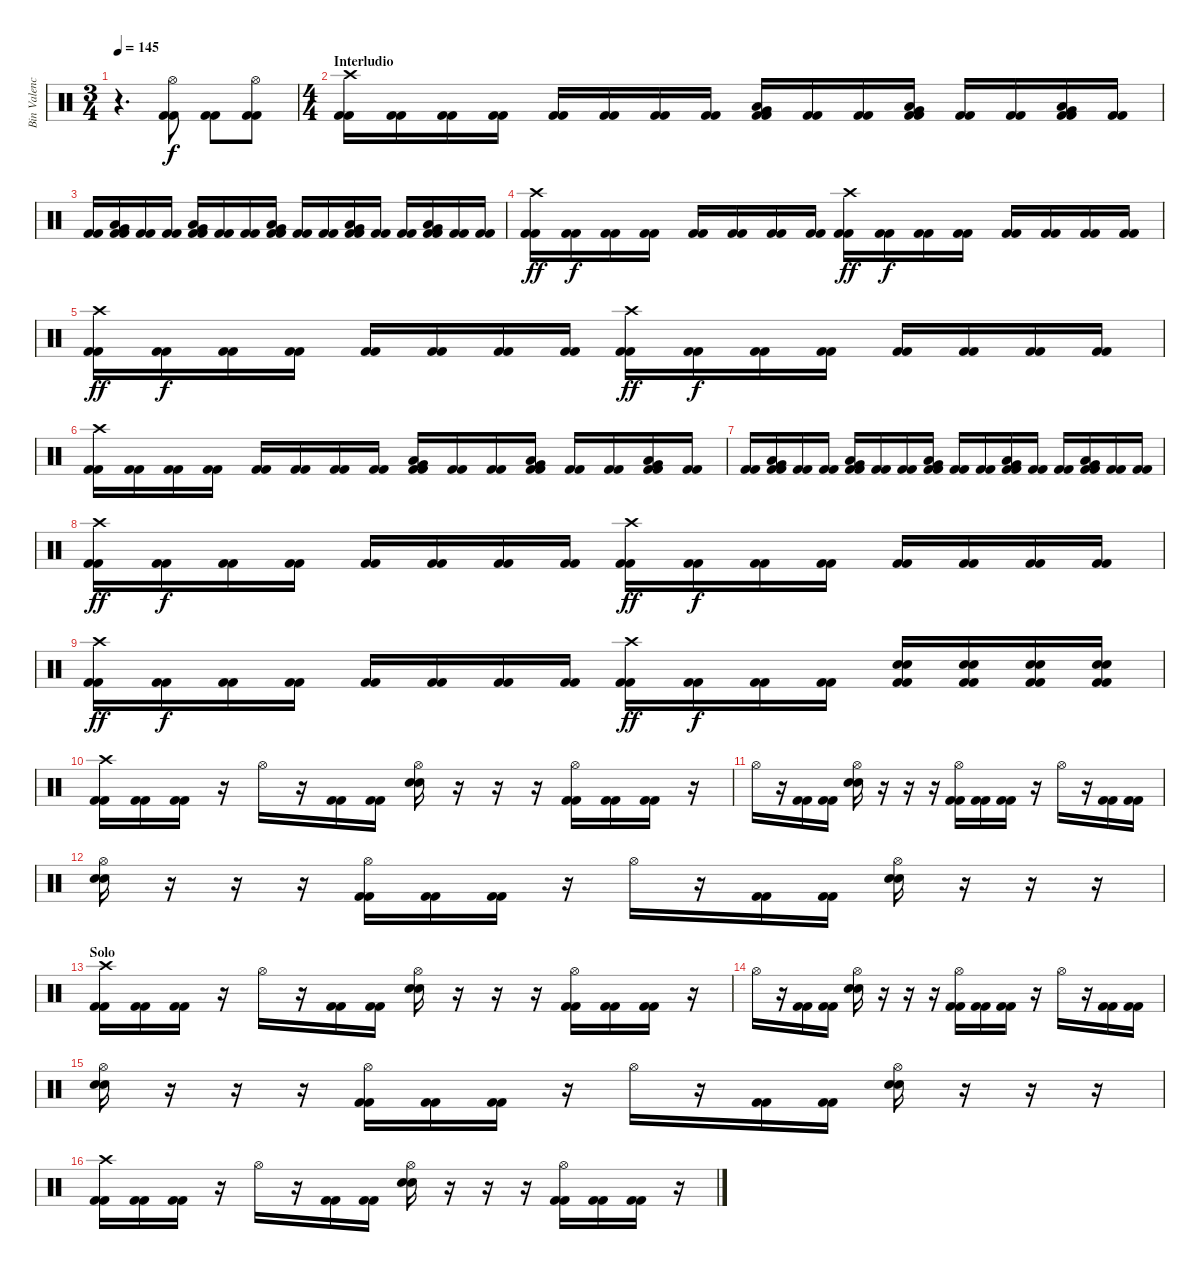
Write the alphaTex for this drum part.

\track ("Bin Valencia (Bateria)" "Bin Valenc") {instrument percussion}
\staff {score}
\articulation defaults
\ts (3 4)
\tempo 145
\clef neutral
\ks c
r.4{d dy f} ("Hi-Hat (open)" "Kick (hit) 2" "Kick (hit) 2").8 ("Kick (hit) 2" "Kick (hit) 2").8 ("Hi-Hat (open)" "Kick (hit) 2" "Kick (hit) 2").8 |
\ts (4 4)
\section ("" "Interludio")
("Crash high (hit)" "Kick (hit) 2" "Kick (hit) 2").16 ("Kick (hit) 2" "Kick (hit) 2").16 ("Kick (hit) 2" "Kick (hit) 2").16 ("Kick (hit) 2" "Kick (hit) 2").16 ("Kick (hit) 2" "Kick (hit) 2").16 ("Kick (hit) 2" "Kick (hit) 2").16 ("Kick (hit) 2" "Kick (hit) 2").16 ("Kick (hit) 2" "Kick (hit) 2").16 ("Low Tom (hit)" "Very Low Tom (hit)" "Kick (hit) 2" "Kick (hit) 2").16 ("Kick (hit) 2" "Kick (hit) 2").16 ("Kick (hit) 2" "Kick (hit) 2").16 ("Low Tom (hit)" "Very Low Tom (hit)" "Kick (hit) 2" "Kick (hit) 2").16 ("Kick (hit) 2" "Kick (hit) 2").16 ("Kick (hit) 2" "Kick (hit) 2").16 ("Low Tom (hit)" "Very Low Tom (hit)" "Kick (hit) 2" "Kick (hit) 2").16 ("Kick (hit) 2" "Kick (hit) 2").16 |
("Kick (hit) 2" "Kick (hit) 2").16 ("Low Tom (hit)" "Very Low Tom (hit)" "Kick (hit) 2" "Kick (hit) 2").16 ("Kick (hit) 2" "Kick (hit) 2").16 ("Kick (hit) 2" "Kick (hit) 2").16 ("Low Tom (hit)" "Very Low Tom (hit)" "Kick (hit) 2" "Kick (hit) 2").16 ("Kick (hit) 2" "Kick (hit) 2").16 ("Kick (hit) 2" "Kick (hit) 2").16 ("Low Tom (hit)" "Very Low Tom (hit)" "Kick (hit) 2" "Kick (hit) 2").16 ("Kick (hit) 2" "Kick (hit) 2").16 ("Kick (hit) 2" "Kick (hit) 2").16 ("Low Tom (hit)" "Very Low Tom (hit)" "Kick (hit) 2" "Kick (hit) 2").16 ("Kick (hit) 2" "Kick (hit) 2").16 ("Kick (hit) 2" "Kick (hit) 2").16 ("Low Tom (hit)" "Very Low Tom (hit)" "Kick (hit) 2" "Kick (hit) 2").16 ("Kick (hit) 2" "Kick (hit) 2").16 ("Kick (hit) 2" "Kick (hit) 2").16 |
("Crash high (hit)" "Kick (hit) 2" "Kick (hit) 2").16{dy ff} ("Kick (hit) 2" "Kick (hit) 2").16{dy f} ("Kick (hit) 2" "Kick (hit) 2").16 ("Kick (hit) 2" "Kick (hit) 2").16 ("Kick (hit) 2" "Kick (hit) 2").16 ("Kick (hit) 2" "Kick (hit) 2").16 ("Kick (hit) 2" "Kick (hit) 2").16 ("Kick (hit) 2" "Kick (hit) 2").16 ("Crash high (hit)" "Kick (hit) 2" "Kick (hit) 2").16{dy ff} ("Kick (hit) 2" "Kick (hit) 2").16{dy f} ("Kick (hit) 2" "Kick (hit) 2").16 ("Kick (hit) 2" "Kick (hit) 2").16 ("Kick (hit) 2" "Kick (hit) 2").16 ("Kick (hit) 2" "Kick (hit) 2").16 ("Kick (hit) 2" "Kick (hit) 2").16 ("Kick (hit) 2" "Kick (hit) 2").16 |
("Crash high (hit)" "Kick (hit) 2" "Kick (hit) 2").16{dy ff} ("Kick (hit) 2" "Kick (hit) 2").16{dy f} ("Kick (hit) 2" "Kick (hit) 2").16 ("Kick (hit) 2" "Kick (hit) 2").16 ("Kick (hit) 2" "Kick (hit) 2").16 ("Kick (hit) 2" "Kick (hit) 2").16 ("Kick (hit) 2" "Kick (hit) 2").16 ("Kick (hit) 2" "Kick (hit) 2").16 ("Crash high (hit)" "Kick (hit) 2" "Kick (hit) 2").16{dy ff} ("Kick (hit) 2" "Kick (hit) 2").16{dy f} ("Kick (hit) 2" "Kick (hit) 2").16 ("Kick (hit) 2" "Kick (hit) 2").16 ("Kick (hit) 2" "Kick (hit) 2").16 ("Kick (hit) 2" "Kick (hit) 2").16 ("Kick (hit) 2" "Kick (hit) 2").16 ("Kick (hit) 2" "Kick (hit) 2").16 |
("Crash high (hit)" "Kick (hit) 2" "Kick (hit) 2").16 ("Kick (hit) 2" "Kick (hit) 2").16 ("Kick (hit) 2" "Kick (hit) 2").16 ("Kick (hit) 2" "Kick (hit) 2").16 ("Kick (hit) 2" "Kick (hit) 2").16 ("Kick (hit) 2" "Kick (hit) 2").16 ("Kick (hit) 2" "Kick (hit) 2").16 ("Kick (hit) 2" "Kick (hit) 2").16 ("Low Tom (hit)" "Very Low Tom (hit)" "Kick (hit) 2" "Kick (hit) 2").16 ("Kick (hit) 2" "Kick (hit) 2").16 ("Kick (hit) 2" "Kick (hit) 2").16 ("Low Tom (hit)" "Very Low Tom (hit)" "Kick (hit) 2" "Kick (hit) 2").16 ("Kick (hit) 2" "Kick (hit) 2").16 ("Kick (hit) 2" "Kick (hit) 2").16 ("Low Tom (hit)" "Very Low Tom (hit)" "Kick (hit) 2" "Kick (hit) 2").16 ("Kick (hit) 2" "Kick (hit) 2").16 |
("Kick (hit) 2" "Kick (hit) 2").16 ("Low Tom (hit)" "Very Low Tom (hit)" "Kick (hit) 2" "Kick (hit) 2").16 ("Kick (hit) 2" "Kick (hit) 2").16 ("Kick (hit) 2" "Kick (hit) 2").16 ("Low Tom (hit)" "Very Low Tom (hit)" "Kick (hit) 2" "Kick (hit) 2").16 ("Kick (hit) 2" "Kick (hit) 2").16 ("Kick (hit) 2" "Kick (hit) 2").16 ("Low Tom (hit)" "Very Low Tom (hit)" "Kick (hit) 2" "Kick (hit) 2").16 ("Kick (hit) 2" "Kick (hit) 2").16 ("Kick (hit) 2" "Kick (hit) 2").16 ("Low Tom (hit)" "Very Low Tom (hit)" "Kick (hit) 2" "Kick (hit) 2").16 ("Kick (hit) 2" "Kick (hit) 2").16 ("Kick (hit) 2" "Kick (hit) 2").16 ("Low Tom (hit)" "Very Low Tom (hit)" "Kick (hit) 2" "Kick (hit) 2").16 ("Kick (hit) 2" "Kick (hit) 2").16 ("Kick (hit) 2" "Kick (hit) 2").16 |
("Crash high (hit)" "Kick (hit) 2" "Kick (hit) 2").16{dy ff} ("Kick (hit) 2" "Kick (hit) 2").16{dy f} ("Kick (hit) 2" "Kick (hit) 2").16 ("Kick (hit) 2" "Kick (hit) 2").16 ("Kick (hit) 2" "Kick (hit) 2").16 ("Kick (hit) 2" "Kick (hit) 2").16 ("Kick (hit) 2" "Kick (hit) 2").16 ("Kick (hit) 2" "Kick (hit) 2").16 ("Crash high (hit)" "Kick (hit) 2" "Kick (hit) 2").16{dy ff} ("Kick (hit) 2" "Kick (hit) 2").16{dy f} ("Kick (hit) 2" "Kick (hit) 2").16 ("Kick (hit) 2" "Kick (hit) 2").16 ("Kick (hit) 2" "Kick (hit) 2").16 ("Kick (hit) 2" "Kick (hit) 2").16 ("Kick (hit) 2" "Kick (hit) 2").16 ("Kick (hit) 2" "Kick (hit) 2").16 |
("Crash high (hit)" "Kick (hit) 2" "Kick (hit) 2").16{dy ff} ("Kick (hit) 2" "Kick (hit) 2").16{dy f} ("Kick (hit) 2" "Kick (hit) 2").16 ("Kick (hit) 2" "Kick (hit) 2").16 ("Kick (hit) 2" "Kick (hit) 2").16 ("Kick (hit) 2" "Kick (hit) 2").16 ("Kick (hit) 2" "Kick (hit) 2").16 ("Kick (hit) 2" "Kick (hit) 2").16 ("Crash high (hit)" "Kick (hit) 2" "Kick (hit) 2").16{dy ff} ("Kick (hit) 2" "Kick (hit) 2").16{dy f} ("Kick (hit) 2" "Kick (hit) 2").16 ("Kick (hit) 2" "Kick (hit) 2").16 ("Snare (hit) 2" "Snare (hit) 2" "Kick (hit) 2" "Kick (hit) 2").16 ("Snare (hit) 2" "Snare (hit) 2" "Kick (hit) 2" "Kick (hit) 2").16 ("Snare (hit) 2" "Snare (hit) 2" "Kick (hit) 2" "Kick (hit) 2").16 ("Snare (hit) 2" "Snare (hit) 2" "Kick (hit) 2" "Kick (hit) 2").16 |
("Kick (hit) 2" "Kick (hit) 2" "Crash high (hit)").16 ("Kick (hit) 2" "Kick (hit) 2").16 ("Kick (hit) 2" "Kick (hit) 2").16 r.16 "Hi-Hat (open)".16 r.16 ("Kick (hit) 2" "Kick (hit) 2").16 ("Kick (hit) 2" "Kick (hit) 2").16 ("Snare (hit) 2" "Snare (hit) 2" "Hi-Hat (open)").16 r.16 r.16 r.16 ("Kick (hit) 2" "Kick (hit) 2" "Hi-Hat (open)").16 ("Kick (hit) 2" "Kick (hit) 2").16 ("Kick (hit) 2" "Kick (hit) 2").16 r.16 |
"Hi-Hat (open)".16 r.16 ("Kick (hit) 2" "Kick (hit) 2").16 ("Kick (hit) 2" "Kick (hit) 2").16 ("Snare (hit) 2" "Snare (hit) 2" "Hi-Hat (open)").16 r.16 r.16 r.16 ("Kick (hit) 2" "Kick (hit) 2" "Hi-Hat (open)").16 ("Kick (hit) 2" "Kick (hit) 2").16 ("Kick (hit) 2" "Kick (hit) 2").16 r.16 "Hi-Hat (open)".16 r.16 ("Kick (hit) 2" "Kick (hit) 2").16 ("Kick (hit) 2" "Kick (hit) 2").16 |
("Snare (hit) 2" "Snare (hit) 2" "Hi-Hat (open)").16 r.16 r.16 r.16 ("Kick (hit) 2" "Kick (hit) 2" "Hi-Hat (open)").16 ("Kick (hit) 2" "Kick (hit) 2").16 ("Kick (hit) 2" "Kick (hit) 2").16 r.16 "Hi-Hat (open)".16 r.16 ("Kick (hit) 2" "Kick (hit) 2").16 ("Kick (hit) 2" "Kick (hit) 2").16 ("Snare (hit) 2" "Snare (hit) 2" "Hi-Hat (open)").16 r.16 r.16 r.16 |
\section ("" "Solo")
("Kick (hit) 2" "Kick (hit) 2" "Crash high (hit)").16 ("Kick (hit) 2" "Kick (hit) 2").16 ("Kick (hit) 2" "Kick (hit) 2").16 r.16 "Hi-Hat (open)".16 r.16 ("Kick (hit) 2" "Kick (hit) 2").16 ("Kick (hit) 2" "Kick (hit) 2").16 ("Snare (hit) 2" "Snare (hit) 2" "Hi-Hat (open)").16 r.16 r.16 r.16 ("Kick (hit) 2" "Kick (hit) 2" "Hi-Hat (open)").16 ("Kick (hit) 2" "Kick (hit) 2").16 ("Kick (hit) 2" "Kick (hit) 2").16 r.16 |
"Hi-Hat (open)".16 r.16 ("Kick (hit) 2" "Kick (hit) 2").16 ("Kick (hit) 2" "Kick (hit) 2").16 ("Snare (hit) 2" "Snare (hit) 2" "Hi-Hat (open)").16 r.16 r.16 r.16 ("Kick (hit) 2" "Kick (hit) 2" "Hi-Hat (open)").16 ("Kick (hit) 2" "Kick (hit) 2").16 ("Kick (hit) 2" "Kick (hit) 2").16 r.16 "Hi-Hat (open)".16 r.16 ("Kick (hit) 2" "Kick (hit) 2").16 ("Kick (hit) 2" "Kick (hit) 2").16 |
("Snare (hit) 2" "Snare (hit) 2" "Hi-Hat (open)").16 r.16 r.16 r.16 ("Kick (hit) 2" "Kick (hit) 2" "Hi-Hat (open)").16 ("Kick (hit) 2" "Kick (hit) 2").16 ("Kick (hit) 2" "Kick (hit) 2").16 r.16 "Hi-Hat (open)".16 r.16 ("Kick (hit) 2" "Kick (hit) 2").16 ("Kick (hit) 2" "Kick (hit) 2").16 ("Snare (hit) 2" "Snare (hit) 2" "Hi-Hat (open)").16 r.16 r.16 r.16 |
("Kick (hit) 2" "Kick (hit) 2" "Crash high (hit)").16 ("Kick (hit) 2" "Kick (hit) 2").16 ("Kick (hit) 2" "Kick (hit) 2").16 r.16 "Hi-Hat (open)".16 r.16 ("Kick (hit) 2" "Kick (hit) 2").16 ("Kick (hit) 2" "Kick (hit) 2").16 ("Snare (hit) 2" "Snare (hit) 2" "Hi-Hat (open)").16 r.16 r.16 r.16 ("Kick (hit) 2" "Kick (hit) 2" "Hi-Hat (open)").16 ("Kick (hit) 2" "Kick (hit) 2").16 ("Kick (hit) 2" "Kick (hit) 2").16 r.16
